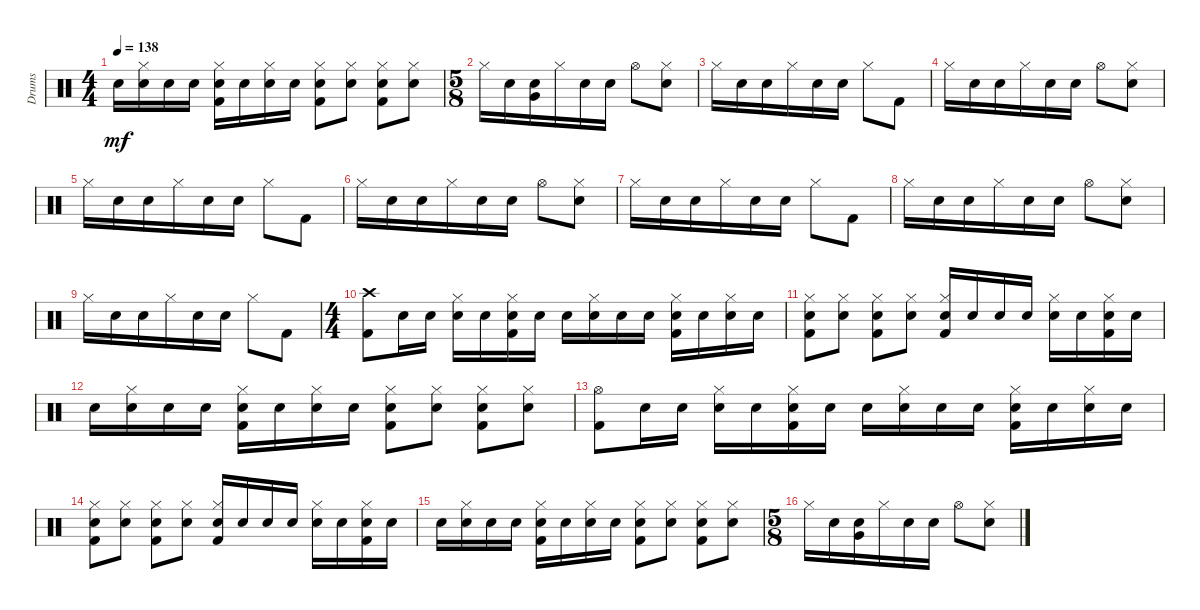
\track ("Drums" "Drums") {instrument percussion}
\staff {score}
\articulation defaults
\ts (4 4)
\tempo 138
\clef neutral
\ks c "Electric Snare (hit)".16{dy mf}
("Electric Snare (hit)" "Hi-Hat (closed)").16 "Electric Snare (hit)".16 "Electric Snare (hit)".16 ("Kick (hit) 2" "Electric Snare (hit)" "Hi-Hat (closed)").16 "Electric Snare (hit)".16 ("Electric Snare (hit)" "Hi-Hat (closed)").16 "Electric Snare (hit)".16 ("Kick (hit) 2" "Electric Snare (hit)" "Hi-Hat (closed)").8 ("Electric Snare (hit)" "Hi-Hat (closed)").8 ("Kick (hit) 2" "Electric Snare (hit)" "Hi-Hat (closed)").8 ("Electric Snare (hit)" "Hi-Hat (closed)").8 |
\ts (5 8)
"Hi-Hat (closed)".16 "Snare (hit) 2".16 ("Snare (hit) 2" "Very Low Tom (hit)").16 "Hi-Hat (closed)".16 "Snare (hit) 2".16 "Snare (hit) 2".16 "Hi-Hat (open)".8 ("Snare (hit) 2" "Hi-Hat (closed)").8 |
"Hi-Hat (closed)".16 "Snare (hit) 2".16 "Snare (hit) 2".16 "Hi-Hat (closed)".16 "Snare (hit) 2".16 "Snare (hit) 2".16 "Hi-Hat (closed)".8 "Kick (hit) 2".8 |
"Hi-Hat (closed)".16 "Snare (hit) 2".16 "Snare (hit) 2".16 "Hi-Hat (closed)".16 "Snare (hit) 2".16 "Snare (hit) 2".16 "Hi-Hat (open)".8 ("Snare (hit) 2" "Hi-Hat (closed)").8 |
"Hi-Hat (closed)".16 "Snare (hit) 2".16 "Snare (hit) 2".16 "Hi-Hat (closed)".16 "Snare (hit) 2".16 "Snare (hit) 2".16 "Hi-Hat (closed)".8 "Kick (hit) 2".8 |
"Hi-Hat (closed)".16 "Snare (hit) 2".16 "Snare (hit) 2".16 "Hi-Hat (closed)".16 "Snare (hit) 2".16 "Snare (hit) 2".16 "Hi-Hat (open)".8 ("Snare (hit) 2" "Hi-Hat (closed)").8 |
"Hi-Hat (closed)".16 "Snare (hit) 2".16 "Snare (hit) 2".16 "Hi-Hat (closed)".16 "Snare (hit) 2".16 "Snare (hit) 2".16 "Hi-Hat (closed)".8 "Kick (hit) 2".8 |
"Hi-Hat (closed)".16 "Snare (hit) 2".16 "Snare (hit) 2".16 "Hi-Hat (closed)".16 "Snare (hit) 2".16 "Snare (hit) 2".16 "Hi-Hat (open)".8 ("Snare (hit) 2" "Hi-Hat (closed)").8 |
"Hi-Hat (closed)".16 "Snare (hit) 2".16 "Snare (hit) 2".16 "Hi-Hat (closed)".16 "Snare (hit) 2".16 "Snare (hit) 2".16 "Hi-Hat (closed)".8 "Kick (hit) 2".8 |
\ts (4 4)
("Kick (hit) 2" "Crash high (hit)").8 "Electric Snare (hit)".16 "Electric Snare (hit)".16 ("Electric Snare (hit)" "Hi-Hat (closed)").16 "Electric Snare (hit)".16 ("Kick (hit) 2" "Electric Snare (hit)" "Hi-Hat (closed)").16 "Electric Snare (hit)".16 "Electric Snare (hit)".16 ("Electric Snare (hit)" "Hi-Hat (closed)").16 "Electric Snare (hit)".16 "Electric Snare (hit)".16 ("Kick (hit) 2" "Electric Snare (hit)" "Hi-Hat (closed)").16 "Electric Snare (hit)".16 ("Electric Snare (hit)" "Hi-Hat (closed)").16 "Electric Snare (hit)".16 |
("Kick (hit) 2" "Electric Snare (hit)" "Hi-Hat (closed)").8 ("Electric Snare (hit)" "Hi-Hat (closed)").8 ("Kick (hit) 2" "Electric Snare (hit)" "Hi-Hat (closed)").8 ("Electric Snare (hit)" "Hi-Hat (closed)").8 ("Kick (hit) 2" "Electric Snare (hit)" "Hi-Hat (closed)").16 "Electric Snare (hit)".16 "Electric Snare (hit)".16 "Electric Snare (hit)".16 ("Electric Snare (hit)" "Hi-Hat (closed)").16 "Electric Snare (hit)".16 ("Kick (hit) 2" "Electric Snare (hit)" "Hi-Hat (closed)").16 "Electric Snare (hit)".16 |
"Electric Snare (hit)".16 ("Electric Snare (hit)" "Hi-Hat (closed)").16 "Electric Snare (hit)".16 "Electric Snare (hit)".16 ("Kick (hit) 2" "Electric Snare (hit)" "Hi-Hat (closed)").16 "Electric Snare (hit)".16 ("Electric Snare (hit)" "Hi-Hat (closed)").16 "Electric Snare (hit)".16 ("Kick (hit) 2" "Electric Snare (hit)" "Hi-Hat (closed)").8 ("Electric Snare (hit)" "Hi-Hat (closed)").8 ("Kick (hit) 2" "Electric Snare (hit)" "Hi-Hat (closed)").8 ("Electric Snare (hit)" "Hi-Hat (closed)").8 |
("Kick (hit) 2" "Hi-Hat (open)").8 "Electric Snare (hit)".16 "Electric Snare (hit)".16 ("Electric Snare (hit)" "Hi-Hat (closed)").16 "Electric Snare (hit)".16 ("Kick (hit) 2" "Electric Snare (hit)" "Hi-Hat (closed)").16 "Electric Snare (hit)".16 "Electric Snare (hit)".16 ("Electric Snare (hit)" "Hi-Hat (closed)").16 "Electric Snare (hit)".16 "Electric Snare (hit)".16 ("Kick (hit) 2" "Electric Snare (hit)" "Hi-Hat (closed)").16 "Electric Snare (hit)".16 ("Electric Snare (hit)" "Hi-Hat (closed)").16 "Electric Snare (hit)".16 |
("Kick (hit) 2" "Electric Snare (hit)" "Hi-Hat (closed)").8 ("Electric Snare (hit)" "Hi-Hat (closed)").8 ("Kick (hit) 2" "Electric Snare (hit)" "Hi-Hat (closed)").8 ("Electric Snare (hit)" "Hi-Hat (closed)").8 ("Kick (hit) 2" "Electric Snare (hit)" "Hi-Hat (closed)").16 "Electric Snare (hit)".16 "Electric Snare (hit)".16 "Electric Snare (hit)".16 ("Electric Snare (hit)" "Hi-Hat (closed)").16 "Electric Snare (hit)".16 ("Kick (hit) 2" "Electric Snare (hit)" "Hi-Hat (closed)").16 "Electric Snare (hit)".16 |
"Electric Snare (hit)".16 ("Electric Snare (hit)" "Hi-Hat (closed)").16 "Electric Snare (hit)".16 "Electric Snare (hit)".16 ("Kick (hit) 2" "Electric Snare (hit)" "Hi-Hat (closed)").16 "Electric Snare (hit)".16 ("Electric Snare (hit)" "Hi-Hat (closed)").16 "Electric Snare (hit)".16 ("Kick (hit) 2" "Electric Snare (hit)" "Hi-Hat (closed)").8 ("Electric Snare (hit)" "Hi-Hat (closed)").8 ("Kick (hit) 2" "Electric Snare (hit)" "Hi-Hat (closed)").8 ("Electric Snare (hit)" "Hi-Hat (closed)").8 |
\ts (5 8)
"Hi-Hat (closed)".16 "Snare (hit) 2".16 ("Snare (hit) 2" "Very Low Tom (hit)").16 "Hi-Hat (closed)".16 "Snare (hit) 2".16 "Snare (hit) 2".16 "Hi-Hat (open)".8 ("Snare (hit) 2" "Hi-Hat (closed)").8
